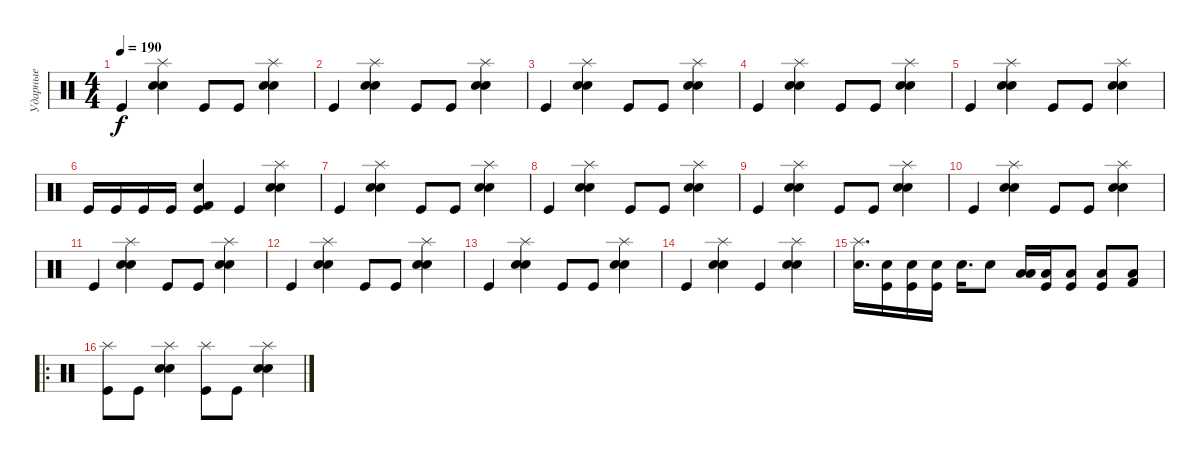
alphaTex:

\track ("Ударные" "Ударные") {instrument percussion}
\staff {score}
\articulation defaults
\ts (4 4)
\tempo 190
\clef neutral
\ks c "Kick (hit)".4{dy f}
("Splash (hit)" "Snare (hit) 2" "Electric Snare (hit)").4 "Kick (hit)".8 "Kick (hit)".8 ("Splash (hit)" "Snare (hit) 2" "Electric Snare (hit)").4 |
"Kick (hit)".4 ("Splash (hit)" "Snare (hit) 2" "Electric Snare (hit)").4 "Kick (hit)".8 "Kick (hit)".8 ("Splash (hit)" "Snare (hit) 2" "Electric Snare (hit)").4 |
"Kick (hit)".4 ("Splash (hit)" "Snare (hit) 2" "Electric Snare (hit)").4 "Kick (hit)".8 "Kick (hit)".8 ("Splash (hit)" "Snare (hit) 2" "Electric Snare (hit)").4 |
"Kick (hit)".4 ("Splash (hit)" "Snare (hit) 2" "Electric Snare (hit)").4 "Kick (hit)".8 "Kick (hit)".8 ("Splash (hit)" "Snare (hit) 2" "Electric Snare (hit)").4 |
"Kick (hit)".4 ("Splash (hit)" "Snare (hit) 2" "Electric Snare (hit)").4 "Kick (hit)".8 "Kick (hit)".8 ("Splash (hit)" "Snare (hit) 2" "Electric Snare (hit)").4 |
"Kick (hit)".16 "Kick (hit)".16 "Kick (hit)".16 "Kick (hit)".16 ("Electric Snare (hit)" "Kick (hit)" "Kick (hit) 2").4 "Kick (hit)".4 ("Splash (hit)" "Snare (hit) 2" "Electric Snare (hit)").4 |
"Kick (hit)".4 ("Splash (hit)" "Snare (hit) 2" "Electric Snare (hit)").4 "Kick (hit)".8 "Kick (hit)".8 ("Splash (hit)" "Snare (hit) 2" "Electric Snare (hit)").4 |
"Kick (hit)".4 ("Splash (hit)" "Snare (hit) 2" "Electric Snare (hit)").4 "Kick (hit)".8 "Kick (hit)".8 ("Splash (hit)" "Snare (hit) 2" "Electric Snare (hit)").4 |
"Kick (hit)".4 ("Splash (hit)" "Snare (hit) 2" "Electric Snare (hit)").4 "Kick (hit)".8 "Kick (hit)".8 ("Splash (hit)" "Snare (hit) 2" "Electric Snare (hit)").4 |
"Kick (hit)".4 ("Splash (hit)" "Snare (hit) 2" "Electric Snare (hit)").4 "Kick (hit)".8 "Kick (hit)".8 ("Splash (hit)" "Snare (hit) 2" "Electric Snare (hit)").4 |
"Kick (hit)".4 ("Splash (hit)" "Snare (hit) 2" "Electric Snare (hit)").4 "Kick (hit)".8 "Kick (hit)".8 ("Splash (hit)" "Snare (hit) 2" "Electric Snare (hit)").4 |
"Kick (hit)".4 ("Splash (hit)" "Snare (hit) 2" "Electric Snare (hit)").4 "Kick (hit)".8 "Kick (hit)".8 ("Splash (hit)" "Snare (hit) 2" "Electric Snare (hit)").4 |
"Kick (hit)".4 ("Splash (hit)" "Snare (hit) 2" "Electric Snare (hit)").4 "Kick (hit)".8 "Kick (hit)".8 ("Splash (hit)" "Snare (hit) 2" "Electric Snare (hit)").4 |
"Kick (hit)".4 ("Splash (hit)" "Snare (hit) 2" "Electric Snare (hit)").4 "Kick (hit)".4 ("Splash (hit)" "Snare (hit) 2" "Electric Snare (hit)").4 |
("Electric Snare (hit)" "Splash (hit)").16{d} ("Electric Snare (hit)" "Kick (hit)").16 ("Electric Snare (hit)" "Kick (hit)").16 ("Electric Snare (hit)" "Kick (hit)").16 "Electric Snare (hit)".16{d} "Electric Snare (hit)".8 ("Low Floor Tom (hit)" "Low Floor Tom (hit)").16 ("Low Floor Tom (hit)" "Kick (hit)").16 ("Low Floor Tom (hit)" "Kick (hit)").8 ("Low Floor Tom (hit)" "Kick (hit)").8 ("Low Floor Tom (hit)" "Kick (hit) 2").8 |
\ro
("Splash (hit)" "Kick (hit)").8 "Kick (hit)".8 ("Splash (hit)" "Snare (hit) 2" "Electric Snare (hit)").4 ("Splash (hit)" "Kick (hit)").8 "Kick (hit)".8 ("Splash (hit)" "Snare (hit) 2" "Electric Snare (hit)").4
